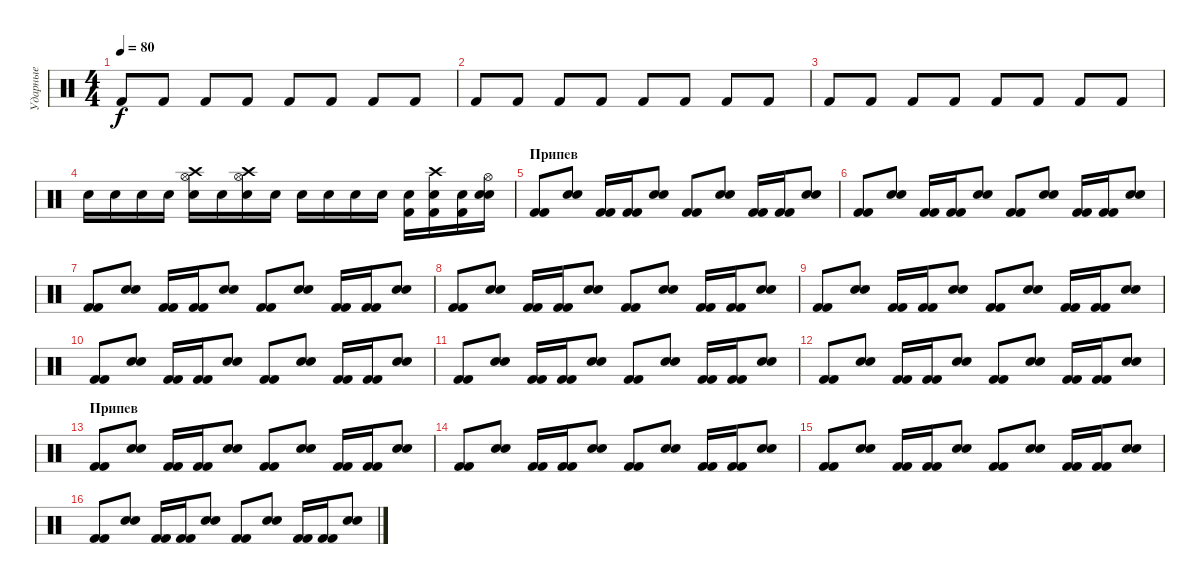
\track ("Ударные" "Ударные") {instrument percussion}
\staff {score}
\articulation defaults
\ts (4 4)
\tempo 80
\clef neutral
\ks c "Kick (hit) 2".8{dy f} "Kick (hit) 2".8 "Kick (hit) 2".8 "Kick (hit) 2".8 "Kick (hit) 2".8 "Kick (hit) 2".8 "Kick (hit) 2".8 "Kick (hit) 2".8
|
"Kick (hit) 2".8 "Kick (hit) 2".8 "Kick (hit) 2".8 "Kick (hit) 2".8 "Kick (hit) 2".8 "Kick (hit) 2".8 "Kick (hit) 2".8 "Kick (hit) 2".8 |
"Kick (hit) 2".8 "Kick (hit) 2".8 "Kick (hit) 2".8 "Kick (hit) 2".8 "Kick (hit) 2".8 "Kick (hit) 2".8 "Kick (hit) 2".8 "Kick (hit) 2".8 |
"Snare (hit) 2".16 "Snare (hit) 2".16 "Snare (hit) 2".16 "Snare (hit) 2".16 ("Snare (hit) 2" "Hi-Hat (open)" "Crash high (hit)").16 "Snare (hit) 2".16 ("Snare (hit) 2" "Hi-Hat (open)" "Crash high (hit)").16 "Snare (hit) 2".16 "Snare (hit) 2".16 "Snare (hit) 2".16 "Snare (hit) 2".16 "Snare (hit) 2".16 ("Snare (hit) 2" "Kick (hit) 2").16 ("Snare (hit) 2" "Kick (hit) 2" "Crash high (hit)").16 ("Snare (hit) 2" "Kick (hit) 2").16 ("Snare (hit) 2" "Snare (hit) 2" "Hi-Hat (open)").16 |
\section ("" "Припев")
("Kick (hit) 2" "Kick (hit) 2").8 ("Snare (hit) 2" "Snare (hit) 2").8 ("Kick (hit) 2" "Kick (hit) 2").16 ("Kick (hit) 2" "Kick (hit) 2").16 ("Snare (hit) 2" "Snare (hit) 2").8 ("Kick (hit) 2" "Kick (hit) 2").8 ("Snare (hit) 2" "Snare (hit) 2").8 ("Kick (hit) 2" "Kick (hit) 2").16 ("Kick (hit) 2" "Kick (hit) 2").16 ("Snare (hit) 2" "Snare (hit) 2").8 |
("Kick (hit) 2" "Kick (hit) 2").8 ("Snare (hit) 2" "Snare (hit) 2").8 ("Kick (hit) 2" "Kick (hit) 2").16 ("Kick (hit) 2" "Kick (hit) 2").16 ("Snare (hit) 2" "Snare (hit) 2").8 ("Kick (hit) 2" "Kick (hit) 2").8 ("Snare (hit) 2" "Snare (hit) 2").8 ("Kick (hit) 2" "Kick (hit) 2").16 ("Kick (hit) 2" "Kick (hit) 2").16 ("Snare (hit) 2" "Snare (hit) 2").8 |
("Kick (hit) 2" "Kick (hit) 2").8 ("Snare (hit) 2" "Snare (hit) 2").8 ("Kick (hit) 2" "Kick (hit) 2").16 ("Kick (hit) 2" "Kick (hit) 2").16 ("Snare (hit) 2" "Snare (hit) 2").8 ("Kick (hit) 2" "Kick (hit) 2").8 ("Snare (hit) 2" "Snare (hit) 2").8 ("Kick (hit) 2" "Kick (hit) 2").16 ("Kick (hit) 2" "Kick (hit) 2").16 ("Snare (hit) 2" "Snare (hit) 2").8 |
("Kick (hit) 2" "Kick (hit) 2").8 ("Snare (hit) 2" "Snare (hit) 2").8 ("Kick (hit) 2" "Kick (hit) 2").16 ("Kick (hit) 2" "Kick (hit) 2").16 ("Snare (hit) 2" "Snare (hit) 2").8 ("Kick (hit) 2" "Kick (hit) 2").8 ("Snare (hit) 2" "Snare (hit) 2").8 ("Kick (hit) 2" "Kick (hit) 2").16 ("Kick (hit) 2" "Kick (hit) 2").16 ("Snare (hit) 2" "Snare (hit) 2").8 |
("Kick (hit) 2" "Kick (hit) 2").8 ("Snare (hit) 2" "Snare (hit) 2").8 ("Kick (hit) 2" "Kick (hit) 2").16 ("Kick (hit) 2" "Kick (hit) 2").16 ("Snare (hit) 2" "Snare (hit) 2").8 ("Kick (hit) 2" "Kick (hit) 2").8 ("Snare (hit) 2" "Snare (hit) 2").8 ("Kick (hit) 2" "Kick (hit) 2").16 ("Kick (hit) 2" "Kick (hit) 2").16 ("Snare (hit) 2" "Snare (hit) 2").8 |
("Kick (hit) 2" "Kick (hit) 2").8 ("Snare (hit) 2" "Snare (hit) 2").8 ("Kick (hit) 2" "Kick (hit) 2").16 ("Kick (hit) 2" "Kick (hit) 2").16 ("Snare (hit) 2" "Snare (hit) 2").8 ("Kick (hit) 2" "Kick (hit) 2").8 ("Snare (hit) 2" "Snare (hit) 2").8 ("Kick (hit) 2" "Kick (hit) 2").16 ("Kick (hit) 2" "Kick (hit) 2").16 ("Snare (hit) 2" "Snare (hit) 2").8 |
("Kick (hit) 2" "Kick (hit) 2").8 ("Snare (hit) 2" "Snare (hit) 2").8 ("Kick (hit) 2" "Kick (hit) 2").16 ("Kick (hit) 2" "Kick (hit) 2").16 ("Snare (hit) 2" "Snare (hit) 2").8 ("Kick (hit) 2" "Kick (hit) 2").8 ("Snare (hit) 2" "Snare (hit) 2").8 ("Kick (hit) 2" "Kick (hit) 2").16 ("Kick (hit) 2" "Kick (hit) 2").16 ("Snare (hit) 2" "Snare (hit) 2").8 |
("Kick (hit) 2" "Kick (hit) 2").8 ("Snare (hit) 2" "Snare (hit) 2").8 ("Kick (hit) 2" "Kick (hit) 2").16 ("Kick (hit) 2" "Kick (hit) 2").16 ("Snare (hit) 2" "Snare (hit) 2").8 ("Kick (hit) 2" "Kick (hit) 2").8 ("Snare (hit) 2" "Snare (hit) 2").8 ("Kick (hit) 2" "Kick (hit) 2").16 ("Kick (hit) 2" "Kick (hit) 2").16 ("Snare (hit) 2" "Snare (hit) 2").8 |
\section ("" "Припев")
("Kick (hit) 2" "Kick (hit) 2").8 ("Snare (hit) 2" "Snare (hit) 2").8 ("Kick (hit) 2" "Kick (hit) 2").16 ("Kick (hit) 2" "Kick (hit) 2").16 ("Snare (hit) 2" "Snare (hit) 2").8 ("Kick (hit) 2" "Kick (hit) 2").8 ("Snare (hit) 2" "Snare (hit) 2").8 ("Kick (hit) 2" "Kick (hit) 2").16 ("Kick (hit) 2" "Kick (hit) 2").16 ("Snare (hit) 2" "Snare (hit) 2").8 |
("Kick (hit) 2" "Kick (hit) 2").8 ("Snare (hit) 2" "Snare (hit) 2").8 ("Kick (hit) 2" "Kick (hit) 2").16 ("Kick (hit) 2" "Kick (hit) 2").16 ("Snare (hit) 2" "Snare (hit) 2").8 ("Kick (hit) 2" "Kick (hit) 2").8 ("Snare (hit) 2" "Snare (hit) 2").8 ("Kick (hit) 2" "Kick (hit) 2").16 ("Kick (hit) 2" "Kick (hit) 2").16 ("Snare (hit) 2" "Snare (hit) 2").8 |
("Kick (hit) 2" "Kick (hit) 2").8 ("Snare (hit) 2" "Snare (hit) 2").8 ("Kick (hit) 2" "Kick (hit) 2").16 ("Kick (hit) 2" "Kick (hit) 2").16 ("Snare (hit) 2" "Snare (hit) 2").8 ("Kick (hit) 2" "Kick (hit) 2").8 ("Snare (hit) 2" "Snare (hit) 2").8 ("Kick (hit) 2" "Kick (hit) 2").16 ("Kick (hit) 2" "Kick (hit) 2").16 ("Snare (hit) 2" "Snare (hit) 2").8 |
("Kick (hit) 2" "Kick (hit) 2").8 ("Snare (hit) 2" "Snare (hit) 2").8 ("Kick (hit) 2" "Kick (hit) 2").16 ("Kick (hit) 2" "Kick (hit) 2").16 ("Snare (hit) 2" "Snare (hit) 2").8 ("Kick (hit) 2" "Kick (hit) 2").8 ("Snare (hit) 2" "Snare (hit) 2").8 ("Kick (hit) 2" "Kick (hit) 2").16 ("Kick (hit) 2" "Kick (hit) 2").16 ("Snare (hit) 2" "Snare (hit) 2").8
